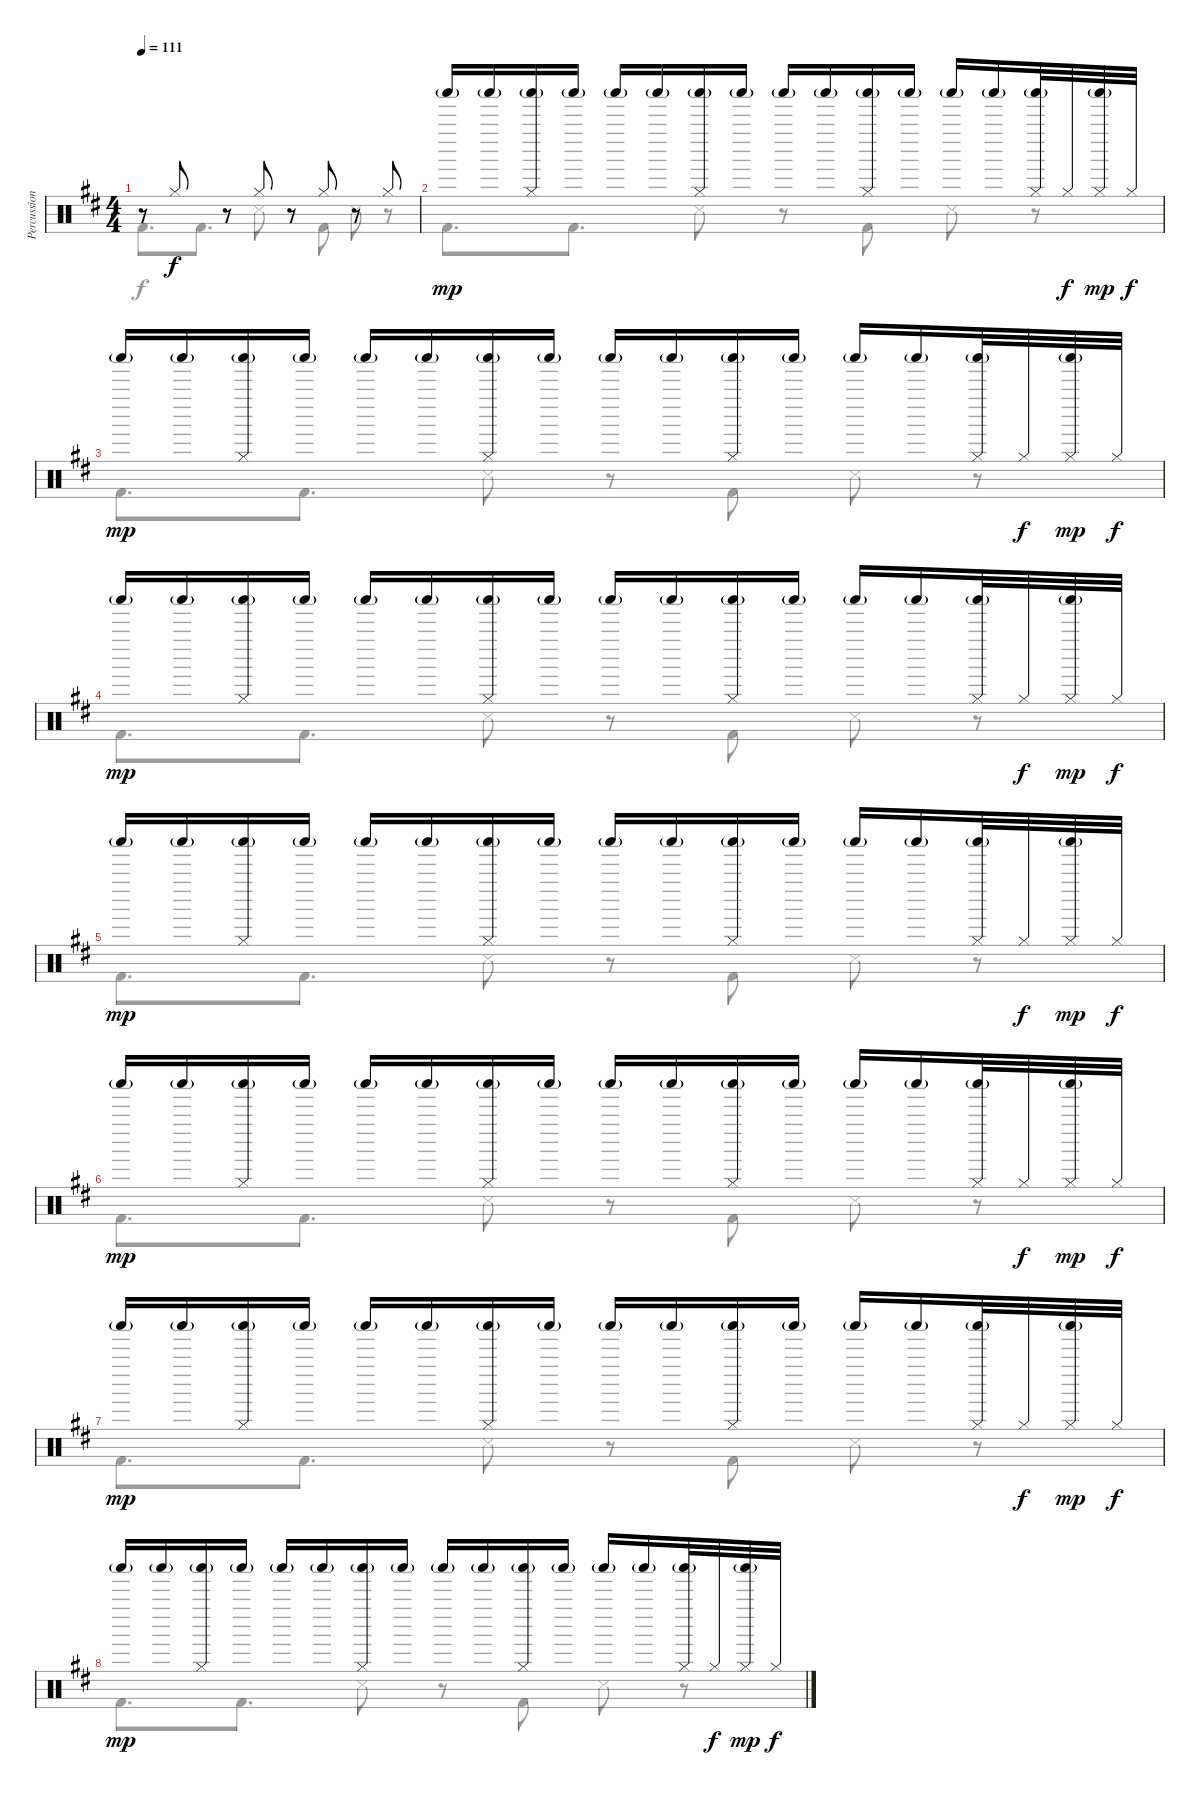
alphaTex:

\track ("Percussion" "Percussion") {instrument percussion}
\staff {score}
\articulation defaults
\voice
\ts (4 4)
\tempo 111
\clef neutral
\ks d
r.8{dy f} "Hi-Hat (closed)".8 r.8 "Hi-Hat (closed)".8 r.8 "Hi-Hat (closed)".8 r.8 "Hi-Hat (closed)".8 |
"Shaker (hit)"{g}.16{dy mp} "Shaker (hit)"{g}.16 ("Shaker (hit)"{g} "Hi-Hat (closed)").16 "Shaker (hit)"{g}.16 "Shaker (hit)"{g}.16 "Shaker (hit)"{g}.16 ("Shaker (hit)"{g} "Hi-Hat (closed)").16 "Shaker (hit)"{g}.16 "Shaker (hit)"{g}.16 "Shaker (hit)"{g}.16 ("Shaker (hit)"{g} "Hi-Hat (closed)").16 "Shaker (hit)"{g}.16 "Shaker (hit)"{g}.16 "Shaker (hit)"{g}.16 ("Shaker (hit)"{g} "Hi-Hat (closed)").32 "Hi-Hat (closed)".32{dy f} ("Shaker (hit)"{g} "Hi-Hat (closed)").32{dy mp} "Hi-Hat (closed)".32{dy f} |
"Shaker (hit)"{g}.16{dy mp} "Shaker (hit)"{g}.16 ("Shaker (hit)"{g} "Hi-Hat (closed)").16 "Shaker (hit)"{g}.16 "Shaker (hit)"{g}.16 "Shaker (hit)"{g}.16 ("Shaker (hit)"{g} "Hi-Hat (closed)").16 "Shaker (hit)"{g}.16 "Shaker (hit)"{g}.16 "Shaker (hit)"{g}.16 ("Shaker (hit)"{g} "Hi-Hat (closed)").16 "Shaker (hit)"{g}.16 "Shaker (hit)"{g}.16 "Shaker (hit)"{g}.16 ("Shaker (hit)"{g} "Hi-Hat (closed)").32 "Hi-Hat (closed)".32{dy f} ("Shaker (hit)"{g} "Hi-Hat (closed)").32{dy mp} "Hi-Hat (closed)".32{dy f} |
"Shaker (hit)"{g}.16{dy mp} "Shaker (hit)"{g}.16 ("Shaker (hit)"{g} "Hi-Hat (closed)").16 "Shaker (hit)"{g}.16 "Shaker (hit)"{g}.16 "Shaker (hit)"{g}.16 ("Shaker (hit)"{g} "Hi-Hat (closed)").16 "Shaker (hit)"{g}.16 "Shaker (hit)"{g}.16 "Shaker (hit)"{g}.16 ("Shaker (hit)"{g} "Hi-Hat (closed)").16 "Shaker (hit)"{g}.16 "Shaker (hit)"{g}.16 "Shaker (hit)"{g}.16 ("Shaker (hit)"{g} "Hi-Hat (closed)").32 "Hi-Hat (closed)".32{dy f} ("Shaker (hit)"{g} "Hi-Hat (closed)").32{dy mp} "Hi-Hat (closed)".32{dy f} |
"Shaker (hit)"{g}.16{dy mp} "Shaker (hit)"{g}.16 ("Shaker (hit)"{g} "Hi-Hat (closed)").16 "Shaker (hit)"{g}.16 "Shaker (hit)"{g}.16 "Shaker (hit)"{g}.16 ("Shaker (hit)"{g} "Hi-Hat (closed)").16 "Shaker (hit)"{g}.16 "Shaker (hit)"{g}.16 "Shaker (hit)"{g}.16 ("Shaker (hit)"{g} "Hi-Hat (closed)").16 "Shaker (hit)"{g}.16 "Shaker (hit)"{g}.16 "Shaker (hit)"{g}.16 ("Shaker (hit)"{g} "Hi-Hat (closed)").32 "Hi-Hat (closed)".32{dy f} ("Shaker (hit)"{g} "Hi-Hat (closed)").32{dy mp} "Hi-Hat (closed)".32{dy f} |
"Shaker (hit)"{g}.16{dy mp} "Shaker (hit)"{g}.16 ("Shaker (hit)"{g} "Hi-Hat (closed)").16 "Shaker (hit)"{g}.16 "Shaker (hit)"{g}.16 "Shaker (hit)"{g}.16 ("Shaker (hit)"{g} "Hi-Hat (closed)").16 "Shaker (hit)"{g}.16 "Shaker (hit)"{g}.16 "Shaker (hit)"{g}.16 ("Shaker (hit)"{g} "Hi-Hat (closed)").16 "Shaker (hit)"{g}.16 "Shaker (hit)"{g}.16 "Shaker (hit)"{g}.16 ("Shaker (hit)"{g} "Hi-Hat (closed)").32 "Hi-Hat (closed)".32{dy f} ("Shaker (hit)"{g} "Hi-Hat (closed)").32{dy mp} "Hi-Hat (closed)".32{dy f} |
"Shaker (hit)"{g}.16{dy mp} "Shaker (hit)"{g}.16 ("Shaker (hit)"{g} "Hi-Hat (closed)").16 "Shaker (hit)"{g}.16 "Shaker (hit)"{g}.16 "Shaker (hit)"{g}.16 ("Shaker (hit)"{g} "Hi-Hat (closed)").16 "Shaker (hit)"{g}.16 "Shaker (hit)"{g}.16 "Shaker (hit)"{g}.16 ("Shaker (hit)"{g} "Hi-Hat (closed)").16 "Shaker (hit)"{g}.16 "Shaker (hit)"{g}.16 "Shaker (hit)"{g}.16 ("Shaker (hit)"{g} "Hi-Hat (closed)").32 "Hi-Hat (closed)".32{dy f} ("Shaker (hit)"{g} "Hi-Hat (closed)").32{dy mp} "Hi-Hat (closed)".32{dy f} |
"Shaker (hit)"{g}.16{dy mp} "Shaker (hit)"{g}.16 ("Shaker (hit)"{g} "Hi-Hat (closed)").16 "Shaker (hit)"{g}.16 "Shaker (hit)"{g}.16 "Shaker (hit)"{g}.16 ("Shaker (hit)"{g} "Hi-Hat (closed)").16 "Shaker (hit)"{g}.16 "Shaker (hit)"{g}.16 "Shaker (hit)"{g}.16 ("Shaker (hit)"{g} "Hi-Hat (closed)").16 "Shaker (hit)"{g}.16 "Shaker (hit)"{g}.16 "Shaker (hit)"{g}.16 ("Shaker (hit)"{g} "Hi-Hat (closed)").32 "Hi-Hat (closed)".32{dy f} ("Shaker (hit)"{g} "Hi-Hat (closed)").32{dy mp} "Hi-Hat (closed)".32{dy f}
\voice
\clef neutral
\ottava regular
\simile none
\ks d "Kick (hit) 2".8{d dy f} "Kick (hit) 2".8{d} "Snare (side stick) 3".8
r.8 "Kick (hit) 2".8 "Snare (side stick) 3".8 r.8 |
"Kick (hit) 2".8{d} "Kick (hit) 2".8{d} "Snare (side stick) 3".8 r.8 "Kick (hit) 2".8 "Snare (side stick) 3".8 r.8 |
"Kick (hit) 2".8{d} "Kick (hit) 2".8{d} "Snare (side stick) 3".8 r.8 "Kick (hit) 2".8 "Snare (side stick) 3".8 r.8 |
"Kick (hit) 2".8{d} "Kick (hit) 2".8{d} "Snare (side stick) 3".8 r.8 "Kick (hit) 2".8 "Snare (side stick) 3".8 r.8 |
"Kick (hit) 2".8{d} "Kick (hit) 2".8{d} "Snare (side stick) 3".8 r.8 "Kick (hit) 2".8 "Snare (side stick) 3".8 r.8 |
"Kick (hit) 2".8{d} "Kick (hit) 2".8{d} "Snare (side stick) 3".8 r.8 "Kick (hit) 2".8 "Snare (side stick) 3".8 r.8 |
"Kick (hit) 2".8{d} "Kick (hit) 2".8{d} "Snare (side stick) 3".8 r.8 "Kick (hit) 2".8 "Snare (side stick) 3".8 r.8 |
"Kick (hit) 2".8{d} "Kick (hit) 2".8{d} "Snare (side stick) 3".8 r.8 "Kick (hit) 2".8 "Snare (side stick) 3".8 r.8
